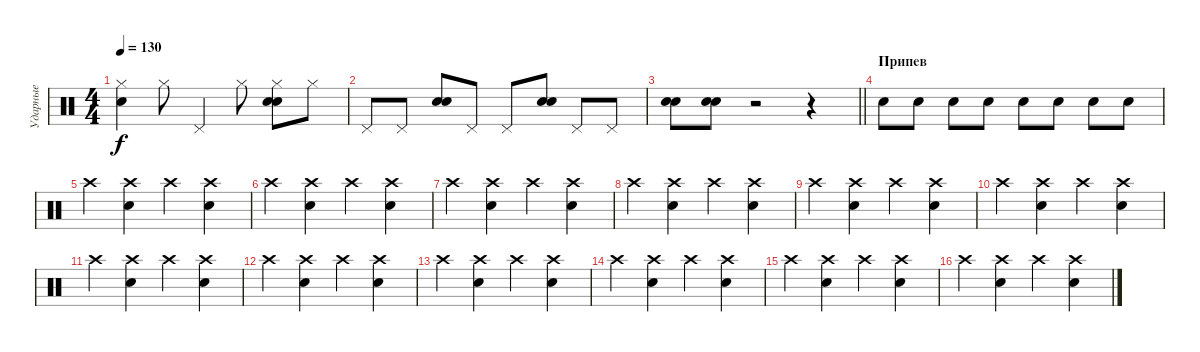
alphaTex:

\track ("Ударные" "Ударные") {instrument percussion}
\staff {score}
\articulation defaults
\ts (4 4)
\tempo 130
\clef neutral
\ks c
("Snare (hit) 2" "Hi-Hat (closed)").4{dy f} "Hi-Hat (closed)".8 "Pedal Hi-Hat (hit)".4 "Hi-Hat (closed)".8 ("Electric Snare (hit)" "Hi-Hat (closed)" "Snare (hit) 2").8 "Hi-Hat (closed)".8 |
"Pedal Hi-Hat (hit)".8 "Pedal Hi-Hat (hit)".8 ("Electric Snare (hit)" "Snare (hit) 2").8 "Pedal Hi-Hat (hit)".8 "Pedal Hi-Hat (hit)".8 ("Snare (hit) 2" "Electric Snare (hit)").8 "Pedal Hi-Hat (hit)".8 "Pedal Hi-Hat (hit)".8 |
\barLineRight lightlight
("Snare (hit) 2" "Electric Snare (hit)").8 ("Snare (hit) 2" "Electric Snare (hit)").8 r.2 r.4 |
\section ("" "Припев")
"Electric Snare (hit)".8 "Electric Snare (hit)".8 "Electric Snare (hit)".8 "Electric Snare (hit)".8 "Electric Snare (hit)".8 "Electric Snare (hit)".8 "Electric Snare (hit)".8 "Electric Snare (hit)".8 |
"Crash high (hit)".4 ("Snare (hit) 2" "Crash high (hit)").4 "Crash high (hit)".4 ("Snare (hit) 2" "Crash high (hit)").4 |
"Crash high (hit)".4 ("Snare (hit) 2" "Crash high (hit)").4 "Crash high (hit)".4 ("Snare (hit) 2" "Crash high (hit)").4 |
"Crash high (hit)".4 ("Snare (hit) 2" "Crash high (hit)").4 "Crash high (hit)".4 ("Snare (hit) 2" "Crash high (hit)").4 |
"Crash high (hit)".4 ("Snare (hit) 2" "Crash high (hit)").4 "Crash high (hit)".4 ("Snare (hit) 2" "Crash high (hit)").4 |
"Crash high (hit)".4 ("Snare (hit) 2" "Crash high (hit)").4 "Crash high (hit)".4 ("Snare (hit) 2" "Crash high (hit)").4 |
"Crash high (hit)".4 ("Snare (hit) 2" "Crash high (hit)").4 "Crash high (hit)".4 ("Snare (hit) 2" "Crash high (hit)").4 |
"Crash high (hit)".4 ("Snare (hit) 2" "Crash high (hit)").4 "Crash high (hit)".4 ("Snare (hit) 2" "Crash high (hit)").4 |
"Crash high (hit)".4 ("Snare (hit) 2" "Crash high (hit)").4 "Crash high (hit)".4 ("Snare (hit) 2" "Crash high (hit)").4 |
"Crash high (hit)".4 ("Snare (hit) 2" "Crash high (hit)").4 "Crash high (hit)".4 ("Snare (hit) 2" "Crash high (hit)").4 |
"Crash high (hit)".4 ("Snare (hit) 2" "Crash high (hit)").4 "Crash high (hit)".4 ("Snare (hit) 2" "Crash high (hit)").4 |
"Crash high (hit)".4 ("Snare (hit) 2" "Crash high (hit)").4 "Crash high (hit)".4 ("Snare (hit) 2" "Crash high (hit)").4 |
"Crash high (hit)".4 ("Snare (hit) 2" "Crash high (hit)").4 "Crash high (hit)".4 ("Snare (hit) 2" "Crash high (hit)").4
